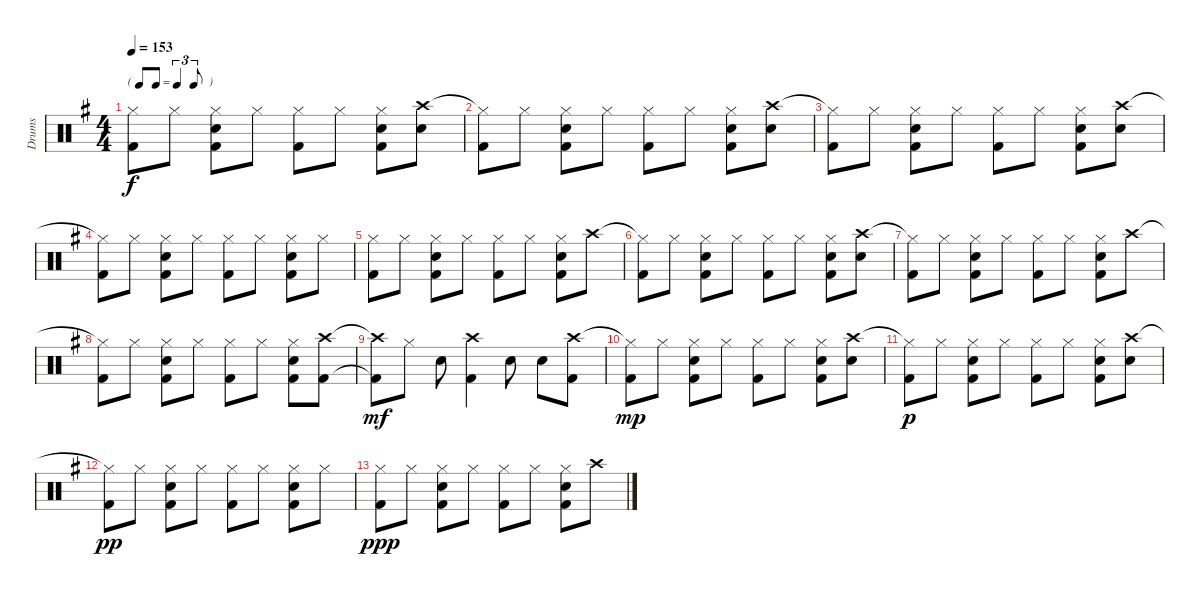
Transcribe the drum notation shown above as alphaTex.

\track ("Drums" "Drums") {instrument percussion}
\staff {score}
\articulation defaults
\ts (4 4)
\tf triplet8th
\tempo 153
\clef neutral
\ks g
("Hi-Hat (closed)" "Kick (hit) 2").8{dy f} "Hi-Hat (closed)".8 ("Hi-Hat (closed)" "Electric Snare (hit)" "Kick (hit) 2").8 "Hi-Hat (closed)".8 ("Hi-Hat (closed)" "Kick (hit) 2").8 "Hi-Hat (closed)".8 ("Hi-Hat (closed)" "Electric Snare (hit)" "Kick (hit) 2").8 ("Crash high (hit)" "Electric Snare (hit)").8 |
("Hi-Hat (closed)"{t} "Kick (hit) 2").8 "Hi-Hat (closed)".8 ("Hi-Hat (closed)" "Electric Snare (hit)" "Kick (hit) 2").8 "Hi-Hat (closed)".8 ("Hi-Hat (closed)" "Kick (hit) 2").8 "Hi-Hat (closed)".8 ("Hi-Hat (closed)" "Electric Snare (hit)" "Kick (hit) 2").8 ("Crash high (hit)" "Electric Snare (hit)").8 |
("Hi-Hat (closed)"{t} "Kick (hit) 2").8 "Hi-Hat (closed)".8 ("Hi-Hat (closed)" "Electric Snare (hit)" "Kick (hit) 2").8 "Hi-Hat (closed)".8 ("Hi-Hat (closed)" "Kick (hit) 2").8 "Hi-Hat (closed)".8 ("Hi-Hat (closed)" "Electric Snare (hit)" "Kick (hit) 2").8 ("Crash high (hit)" "Electric Snare (hit)").8 |
("Hi-Hat (closed)"{t} "Kick (hit) 2").8 "Hi-Hat (closed)".8 ("Hi-Hat (closed)" "Electric Snare (hit)" "Kick (hit) 2").8 "Hi-Hat (closed)".8 ("Hi-Hat (closed)" "Kick (hit) 2").8 "Hi-Hat (closed)".8 ("Hi-Hat (closed)" "Electric Snare (hit)" "Kick (hit) 2").8 "Hi-Hat (closed)".8 |
("Hi-Hat (closed)" "Kick (hit) 2").8 "Hi-Hat (closed)".8 ("Hi-Hat (closed)" "Electric Snare (hit)" "Kick (hit) 2").8 "Hi-Hat (closed)".8 ("Hi-Hat (closed)" "Kick (hit) 2").8 "Hi-Hat (closed)".8 ("Hi-Hat (closed)" "Electric Snare (hit)" "Kick (hit) 2").8 "Crash high (hit)".8 |
("Hi-Hat (closed)"{t} "Kick (hit) 2").8 "Hi-Hat (closed)".8 ("Hi-Hat (closed)" "Electric Snare (hit)" "Kick (hit) 2").8 "Hi-Hat (closed)".8 ("Hi-Hat (closed)" "Kick (hit) 2").8 "Hi-Hat (closed)".8 ("Hi-Hat (closed)" "Electric Snare (hit)" "Kick (hit) 2").8 ("Crash high (hit)" "Electric Snare (hit)").8 |
("Hi-Hat (closed)"{t} "Kick (hit) 2").8 "Hi-Hat (closed)".8 ("Hi-Hat (closed)" "Electric Snare (hit)" "Kick (hit) 2").8 "Hi-Hat (closed)".8 ("Hi-Hat (closed)" "Kick (hit) 2").8 "Hi-Hat (closed)".8 ("Hi-Hat (closed)" "Electric Snare (hit)" "Kick (hit) 2").8 "Crash high (hit)".8 |
("Hi-Hat (closed)"{t} "Kick (hit) 2").8 "Hi-Hat (closed)".8 ("Hi-Hat (closed)" "Electric Snare (hit)" "Kick (hit) 2").8 "Hi-Hat (closed)".8 ("Hi-Hat (closed)" "Kick (hit) 2").8 "Hi-Hat (closed)".8 ("Hi-Hat (closed)" "Electric Snare (hit)" "Kick (hit) 2").8 ("Crash high (hit)" "Kick (hit) 2").8 |
("Crash high (hit)"{t} "Kick (hit) 2"{t}).8{dy mf} "Hi-Hat (closed)".8 "Electric Snare (hit)".8 ("Crash high (hit)" "Kick (hit) 2").4 "Electric Snare (hit)".8 "Electric Snare (hit)".8 ("Crash high (hit)" "Kick (hit) 2").8 |
("Hi-Hat (closed)"{t} "Kick (hit) 2").8{dy mp} "Hi-Hat (closed)".8 ("Hi-Hat (closed)" "Electric Snare (hit)" "Kick (hit) 2").8 "Hi-Hat (closed)".8 ("Hi-Hat (closed)" "Kick (hit) 2").8 "Hi-Hat (closed)".8 ("Hi-Hat (closed)" "Electric Snare (hit)" "Kick (hit) 2").8 ("Crash high (hit)" "Electric Snare (hit)").8 |
("Hi-Hat (closed)"{t} "Kick (hit) 2").8{dy p} "Hi-Hat (closed)".8 ("Hi-Hat (closed)" "Electric Snare (hit)" "Kick (hit) 2").8 "Hi-Hat (closed)".8 ("Hi-Hat (closed)" "Kick (hit) 2").8 "Hi-Hat (closed)".8 ("Hi-Hat (closed)" "Electric Snare (hit)" "Kick (hit) 2").8 ("Crash high (hit)" "Electric Snare (hit)").8 |
("Hi-Hat (closed)"{t} "Kick (hit) 2").8{dy pp} "Hi-Hat (closed)".8 ("Hi-Hat (closed)" "Electric Snare (hit)" "Kick (hit) 2").8 "Hi-Hat (closed)".8 ("Hi-Hat (closed)" "Kick (hit) 2").8 "Hi-Hat (closed)".8 ("Hi-Hat (closed)" "Electric Snare (hit)" "Kick (hit) 2").8 "Hi-Hat (closed)".8 |
("Hi-Hat (closed)" "Kick (hit) 2").8{dy ppp} "Hi-Hat (closed)".8 ("Hi-Hat (closed)" "Electric Snare (hit)" "Kick (hit) 2").8 "Hi-Hat (closed)".8 ("Hi-Hat (closed)" "Kick (hit) 2").8 "Hi-Hat (closed)".8 ("Hi-Hat (closed)" "Electric Snare (hit)" "Kick (hit) 2").8 "Crash high (hit)".8
